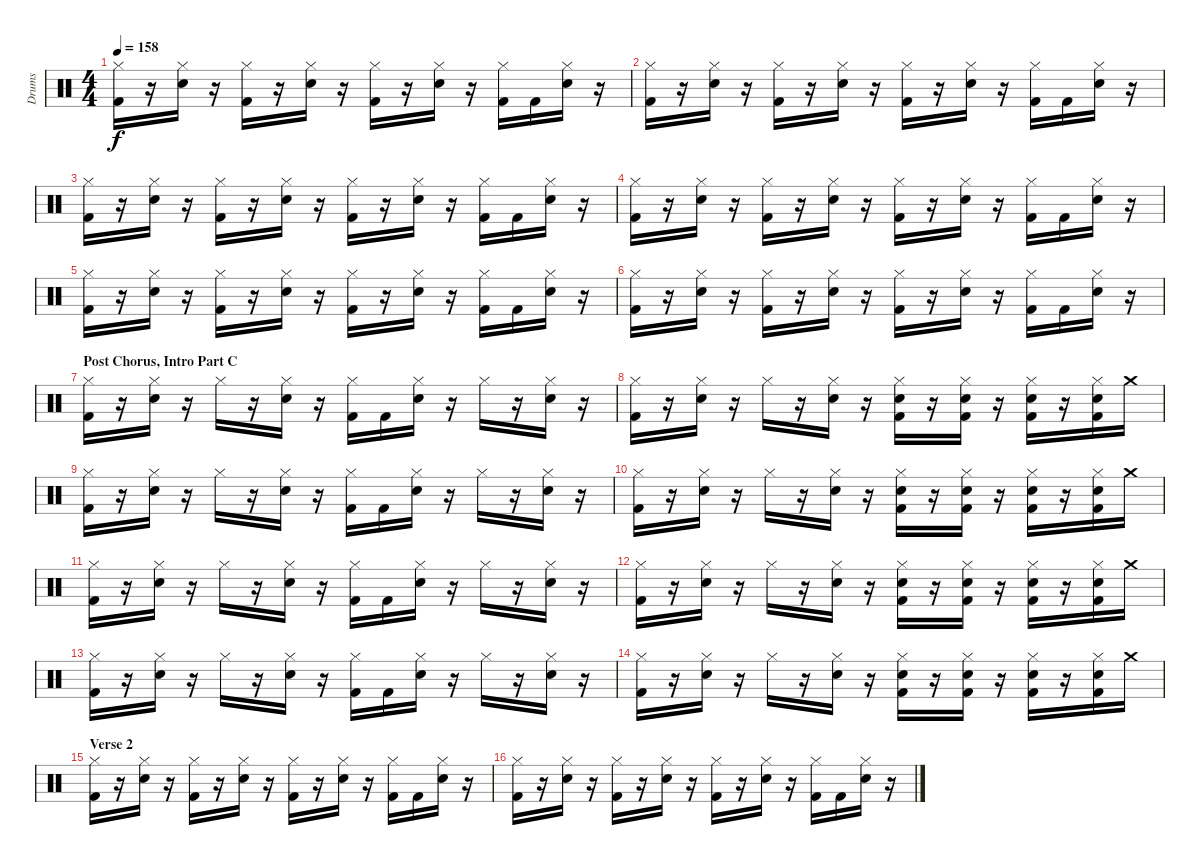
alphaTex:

\track ("Drums" "Drums") {instrument percussion}
\staff {score}
\articulation defaults
\ts (4 4)
\tempo 158
\clef neutral
\ks c
("Hi-Hat (closed)" "Kick (hit) 2").16{dy f} r.16 ("Hi-Hat (closed)" "Electric Snare (hit)").16 r.16 ("Hi-Hat (closed)" "Kick (hit) 2").16 r.16 ("Hi-Hat (closed)" "Electric Snare (hit)").16 r.16 ("Hi-Hat (closed)" "Kick (hit) 2").16 r.16 ("Hi-Hat (closed)" "Electric Snare (hit)").16 r.16 ("Hi-Hat (closed)" "Kick (hit) 2").16 "Kick (hit) 2".16 ("Hi-Hat (closed)" "Electric Snare (hit)").16 r.16 |
("Hi-Hat (closed)" "Kick (hit) 2").16 r.16 ("Hi-Hat (closed)" "Electric Snare (hit)").16 r.16 ("Hi-Hat (closed)" "Kick (hit) 2").16 r.16 ("Hi-Hat (closed)" "Electric Snare (hit)").16 r.16 ("Hi-Hat (closed)" "Kick (hit) 2").16 r.16 ("Hi-Hat (closed)" "Electric Snare (hit)").16 r.16 ("Hi-Hat (closed)" "Kick (hit) 2").16 "Kick (hit) 2".16 ("Hi-Hat (closed)" "Electric Snare (hit)").16 r.16 |
("Hi-Hat (closed)" "Kick (hit) 2").16 r.16 ("Hi-Hat (closed)" "Electric Snare (hit)").16 r.16 ("Hi-Hat (closed)" "Kick (hit) 2").16 r.16 ("Hi-Hat (closed)" "Electric Snare (hit)").16 r.16 ("Hi-Hat (closed)" "Kick (hit) 2").16 r.16 ("Hi-Hat (closed)" "Electric Snare (hit)").16 r.16 ("Hi-Hat (closed)" "Kick (hit) 2").16 "Kick (hit) 2".16 ("Hi-Hat (closed)" "Electric Snare (hit)").16 r.16 |
("Hi-Hat (closed)" "Kick (hit) 2").16 r.16 ("Hi-Hat (closed)" "Electric Snare (hit)").16 r.16 ("Hi-Hat (closed)" "Kick (hit) 2").16 r.16 ("Hi-Hat (closed)" "Electric Snare (hit)").16 r.16 ("Hi-Hat (closed)" "Kick (hit) 2").16 r.16 ("Hi-Hat (closed)" "Electric Snare (hit)").16 r.16 ("Hi-Hat (closed)" "Kick (hit) 2").16 "Kick (hit) 2".16 ("Hi-Hat (closed)" "Electric Snare (hit)").16 r.16 |
("Hi-Hat (closed)" "Kick (hit) 2").16 r.16 ("Hi-Hat (closed)" "Electric Snare (hit)").16 r.16 ("Hi-Hat (closed)" "Kick (hit) 2").16 r.16 ("Hi-Hat (closed)" "Electric Snare (hit)").16 r.16 ("Hi-Hat (closed)" "Kick (hit) 2").16 r.16 ("Hi-Hat (closed)" "Electric Snare (hit)").16 r.16 ("Hi-Hat (closed)" "Kick (hit) 2").16 "Kick (hit) 2".16 ("Hi-Hat (closed)" "Electric Snare (hit)").16 r.16 |
("Hi-Hat (closed)" "Kick (hit) 2").16 r.16 ("Hi-Hat (closed)" "Electric Snare (hit)").16 r.16 ("Hi-Hat (closed)" "Kick (hit) 2").16 r.16 ("Hi-Hat (closed)" "Electric Snare (hit)").16 r.16 ("Hi-Hat (closed)" "Kick (hit) 2").16 r.16 ("Hi-Hat (closed)" "Electric Snare (hit)").16 r.16 ("Hi-Hat (closed)" "Kick (hit) 2").16 "Kick (hit) 2".16 ("Hi-Hat (closed)" "Electric Snare (hit)").16 r.16 |
\section ("" "Post Chorus, Intro Part C")
("Hi-Hat (closed)" "Kick (hit) 2").16 r.16 ("Hi-Hat (closed)" "Electric Snare (hit)").16 r.16 "Hi-Hat (closed)".16 r.16 ("Hi-Hat (closed)" "Electric Snare (hit)").16 r.16 ("Hi-Hat (closed)" "Kick (hit) 2").16 "Kick (hit) 2".16 ("Hi-Hat (closed)" "Electric Snare (hit)").16 r.16 "Hi-Hat (closed)".16 r.16 ("Hi-Hat (closed)" "Electric Snare (hit)").16 r.16 |
("Hi-Hat (closed)" "Kick (hit) 2").16 r.16 ("Hi-Hat (closed)" "Electric Snare (hit)").16 r.16 "Hi-Hat (closed)".16 r.16 ("Hi-Hat (closed)" "Electric Snare (hit)").16 r.16 ("Hi-Hat (closed)" "Electric Snare (hit)" "Kick (hit) 2").16 r.16 ("Hi-Hat (closed)" "Electric Snare (hit)" "Kick (hit) 2").16 r.16 ("Hi-Hat (closed)" "Electric Snare (hit)" "Kick (hit) 2").16 r.16 ("Hi-Hat (closed)" "Electric Snare (hit)" "Kick (hit) 2").16 "Crash medium (hit)".16 |
("Hi-Hat (closed)" "Kick (hit) 2").16 r.16 ("Hi-Hat (closed)" "Electric Snare (hit)").16 r.16 "Hi-Hat (closed)".16 r.16 ("Hi-Hat (closed)" "Electric Snare (hit)").16 r.16 ("Hi-Hat (closed)" "Kick (hit) 2").16 "Kick (hit) 2".16 ("Hi-Hat (closed)" "Electric Snare (hit)").16 r.16 "Hi-Hat (closed)".16 r.16 ("Hi-Hat (closed)" "Electric Snare (hit)").16 r.16 |
("Hi-Hat (closed)" "Kick (hit) 2").16 r.16 ("Hi-Hat (closed)" "Electric Snare (hit)").16 r.16 "Hi-Hat (closed)".16 r.16 ("Hi-Hat (closed)" "Electric Snare (hit)").16 r.16 ("Hi-Hat (closed)" "Electric Snare (hit)" "Kick (hit) 2").16 r.16 ("Hi-Hat (closed)" "Electric Snare (hit)" "Kick (hit) 2").16 r.16 ("Hi-Hat (closed)" "Electric Snare (hit)" "Kick (hit) 2").16 r.16 ("Hi-Hat (closed)" "Electric Snare (hit)" "Kick (hit) 2").16 "Crash medium (hit)".16 |
("Hi-Hat (closed)" "Kick (hit) 2").16 r.16 ("Hi-Hat (closed)" "Electric Snare (hit)").16 r.16 "Hi-Hat (closed)".16 r.16 ("Hi-Hat (closed)" "Electric Snare (hit)").16 r.16 ("Hi-Hat (closed)" "Kick (hit) 2").16 "Kick (hit) 2".16 ("Hi-Hat (closed)" "Electric Snare (hit)").16 r.16 "Hi-Hat (closed)".16 r.16 ("Hi-Hat (closed)" "Electric Snare (hit)").16 r.16 |
("Hi-Hat (closed)" "Kick (hit) 2").16 r.16 ("Hi-Hat (closed)" "Electric Snare (hit)").16 r.16 "Hi-Hat (closed)".16 r.16 ("Hi-Hat (closed)" "Electric Snare (hit)").16 r.16 ("Hi-Hat (closed)" "Electric Snare (hit)" "Kick (hit) 2").16 r.16 ("Hi-Hat (closed)" "Electric Snare (hit)" "Kick (hit) 2").16 r.16 ("Hi-Hat (closed)" "Electric Snare (hit)" "Kick (hit) 2").16 r.16 ("Hi-Hat (closed)" "Electric Snare (hit)" "Kick (hit) 2").16 "Crash medium (hit)".16 |
("Hi-Hat (closed)" "Kick (hit) 2").16 r.16 ("Hi-Hat (closed)" "Electric Snare (hit)").16 r.16 "Hi-Hat (closed)".16 r.16 ("Hi-Hat (closed)" "Electric Snare (hit)").16 r.16 ("Hi-Hat (closed)" "Kick (hit) 2").16 "Kick (hit) 2".16 ("Hi-Hat (closed)" "Electric Snare (hit)").16 r.16 "Hi-Hat (closed)".16 r.16 ("Hi-Hat (closed)" "Electric Snare (hit)").16 r.16 |
("Hi-Hat (closed)" "Kick (hit) 2").16 r.16 ("Hi-Hat (closed)" "Electric Snare (hit)").16 r.16 "Hi-Hat (closed)".16 r.16 ("Hi-Hat (closed)" "Electric Snare (hit)").16 r.16 ("Hi-Hat (closed)" "Electric Snare (hit)" "Kick (hit) 2").16 r.16 ("Hi-Hat (closed)" "Electric Snare (hit)" "Kick (hit) 2").16 r.16 ("Hi-Hat (closed)" "Electric Snare (hit)" "Kick (hit) 2").16 r.16 ("Hi-Hat (closed)" "Electric Snare (hit)" "Kick (hit) 2").16 "Crash medium (hit)".16 |
\section ("" "Verse 2")
("Hi-Hat (closed)" "Kick (hit) 2").16 r.16 ("Hi-Hat (closed)" "Electric Snare (hit)").16 r.16 ("Hi-Hat (closed)" "Kick (hit) 2").16 r.16 ("Hi-Hat (closed)" "Electric Snare (hit)").16 r.16 ("Hi-Hat (closed)" "Kick (hit) 2").16 r.16 ("Hi-Hat (closed)" "Electric Snare (hit)").16 r.16 ("Hi-Hat (closed)" "Kick (hit) 2").16 "Kick (hit) 2".16 ("Hi-Hat (closed)" "Electric Snare (hit)").16 r.16 |
("Hi-Hat (closed)" "Kick (hit) 2").16 r.16 ("Hi-Hat (closed)" "Electric Snare (hit)").16 r.16 ("Hi-Hat (closed)" "Kick (hit) 2").16 r.16 ("Hi-Hat (closed)" "Electric Snare (hit)").16 r.16 ("Hi-Hat (closed)" "Kick (hit) 2").16 r.16 ("Hi-Hat (closed)" "Electric Snare (hit)").16 r.16 ("Hi-Hat (closed)" "Kick (hit) 2").16 "Kick (hit) 2".16 ("Hi-Hat (closed)" "Electric Snare (hit)").16 r.16
